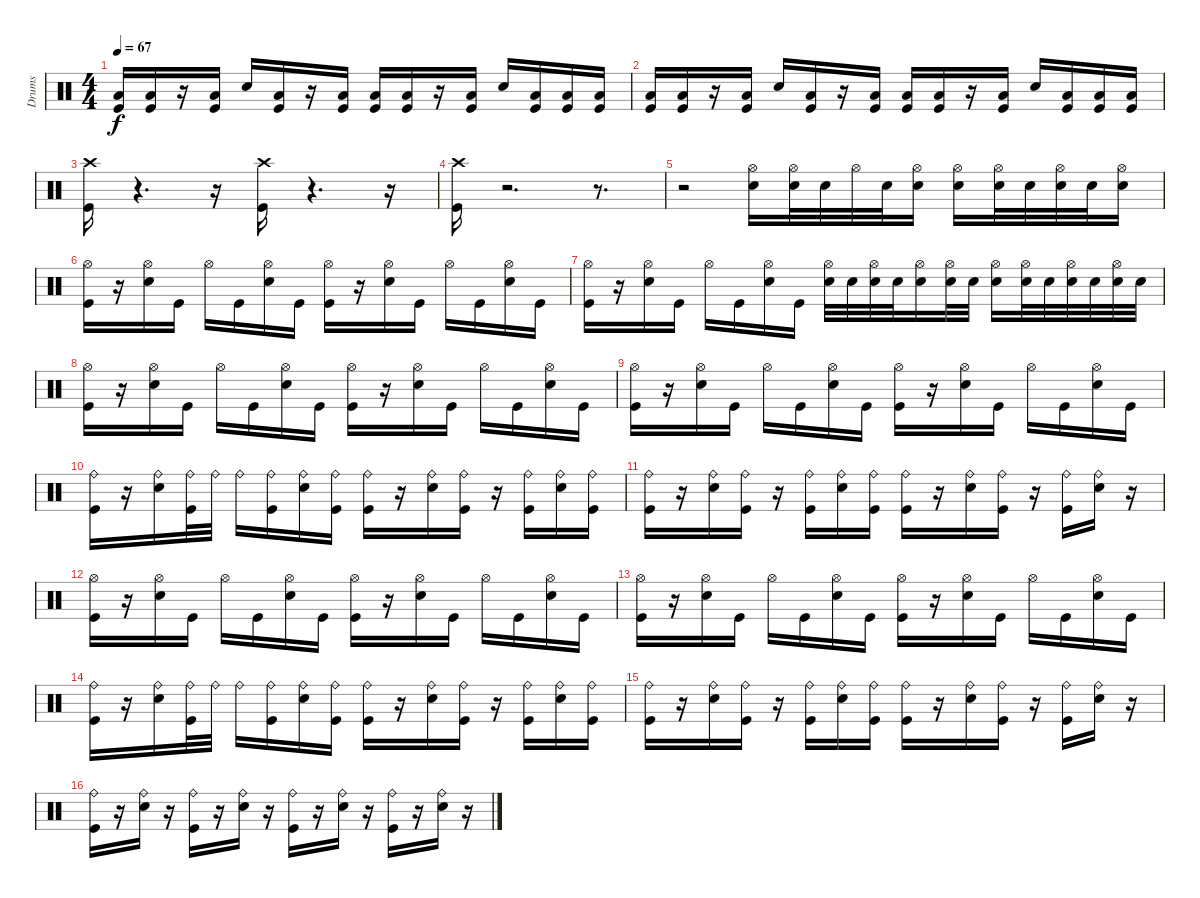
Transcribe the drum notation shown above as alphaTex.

\track ("Drums" "Drums") {instrument percussion}
\staff {score}
\articulation defaults
\ts (4 4)
\tempo 67
\clef neutral
\ks c
("Low Tom (hit)" "Kick (hit)").16{dy f} ("Low Tom (hit)" "Kick (hit)").16 r.16 ("Low Tom (hit)" "Kick (hit)").16 "Metronome (bell)".16 ("Kick (hit)" "Low Tom (hit)").16 r.16 ("Low Tom (hit)" "Kick (hit)").16 ("Low Tom (hit)" "Kick (hit)").16 ("Kick (hit)" "Low Tom (hit)").16 r.16 ("Low Tom (hit)" "Kick (hit)").16 "Metronome (bell)".16 ("Kick (hit)" "Low Tom (hit)").16 ("Kick (hit)" "Low Tom (hit)").16 ("Kick (hit)" "Low Tom (hit)").16 |
("Kick (hit)" "Low Tom (hit)").16 ("Kick (hit)" "Low Tom (hit)").16 r.16 ("Kick (hit)" "Low Tom (hit)").16 "Metronome (bell)".16 ("Low Tom (hit)" "Kick (hit)").16 r.16 ("Kick (hit)" "Low Tom (hit)").16 ("Kick (hit)" "Low Tom (hit)").16 ("Low Tom (hit)" "Kick (hit)").16 r.16 ("Kick (hit)" "Low Tom (hit)").16 "Metronome (bell)".16 ("Low Tom (hit)" "Kick (hit)").16 ("Low Tom (hit)" "Kick (hit)").16 ("Kick (hit)" "Low Tom (hit)").16 |
("Kick (hit)" "Crash high (hit)").16 r.4{d} r.16 ("Kick (hit)" "Crash high (hit)").16 r.4{d} r.16 |
("Kick (hit)" "Crash high (hit)").16 r.2{d} r.8{d} |
r.2 ("Hi-Hat (open)" "Metronome (bell)").16 ("Hi-Hat (open)" "Metronome (bell)").32 "Metronome (bell)".32 "Hi-Hat (open)".32 "Metronome (bell)".32 ("Hi-Hat (open)" "Metronome (bell)").16 ("Hi-Hat (open)" "Metronome (bell)").16 ("Hi-Hat (open)" "Metronome (bell)").32 "Metronome (bell)".32 ("Hi-Hat (open)" "Metronome (bell)").32 "Metronome (bell)".32 ("Hi-Hat (open)" "Metronome (bell)").16 |
("Hi-Hat (open)" "Kick (hit)").16 r.16 ("Hi-Hat (open)" "Electric Snare (hit)").16 "Kick (hit)".16 "Hi-Hat (open)".16 "Kick (hit)".16 ("Hi-Hat (open)" "Electric Snare (hit)").16 "Kick (hit)".16 ("Kick (hit)" "Hi-Hat (open)").16 r.16 ("Hi-Hat (open)" "Electric Snare (hit)").16 "Kick (hit)".16 "Hi-Hat (open)".16 "Kick (hit)".16 ("Electric Snare (hit)" "Hi-Hat (open)").16 "Kick (hit)".16 |
("Hi-Hat (open)" "Kick (hit)").16 r.16 ("Electric Snare (hit)" "Hi-Hat (open)").16 "Kick (hit)".16 "Hi-Hat (open)".16 "Kick (hit)".16 ("Electric Snare (hit)" "Hi-Hat (open)").16 "Kick (hit)".16 ("Hi-Hat (open)" "Snare (hit) 2").32 "Snare (hit) 2".32 ("Snare (hit) 2" "Hi-Hat (open)").32 "Snare (hit) 2".32 ("Hi-Hat (open)" "Snare (hit) 2").16 ("Snare (hit) 2" "Hi-Hat (open)").32 "Snare (hit) 2".32 ("Snare (hit) 2" "Hi-Hat (open)").16 ("Hi-Hat (open)" "Snare (hit) 2").32 "Snare (hit) 2".32 ("Hi-Hat (open)" "Snare (hit) 2").32 "Snare (hit) 2".32 ("Hi-Hat (open)" "Snare (hit) 2").32 "Snare (hit) 2".32 |
("Hi-Hat (open)" "Kick (hit)").16 r.16 ("Electric Snare (hit)" "Hi-Hat (open)").16 "Kick (hit)".16 "Hi-Hat (open)".16 "Kick (hit)".16 ("Hi-Hat (open)" "Electric Snare (hit)").16 "Kick (hit)".16 ("Kick (hit)" "Hi-Hat (open)").16 r.16 ("Hi-Hat (open)" "Electric Snare (hit)").16 "Kick (hit)".16 "Hi-Hat (open)".16 "Kick (hit)".16 ("Electric Snare (hit)" "Hi-Hat (open)").16 "Kick (hit)".16 |
("Kick (hit)" "Hi-Hat (open)").16 r.16 ("Hi-Hat (open)" "Electric Snare (hit)").16 "Kick (hit)".16 "Hi-Hat (open)".16 "Kick (hit)".16 ("Electric Snare (hit)" "Hi-Hat (open)").16 "Kick (hit)".16 ("Kick (hit)" "Hi-Hat (open)").16 r.16 ("Hi-Hat (open)" "Electric Snare (hit)").16 "Kick (hit)".16 "Hi-Hat (open)".16 "Kick (hit)".16 ("Electric Snare (hit)" "Hi-Hat (open)").16 "Kick (hit)".16 |
("Kick (hit)" "Ride (bell)").16 r.16 ("Electric Snare (hit)" "Ride (bell)").16 ("Kick (hit)" "Ride (bell)").32 "Ride (bell)".32 "Ride (bell)".16 ("Ride (bell)" "Kick (hit)").16 ("Ride (bell)" "Electric Snare (hit)").16 ("Ride (bell)" "Kick (hit)").16 ("Ride (bell)" "Kick (hit)").16 r.16 ("Ride (bell)" "Electric Snare (hit)").16 ("Ride (bell)" "Kick (hit)").16 r.16 ("Kick (hit)" "Ride (bell)").16 ("Ride (bell)" "Electric Snare (hit)").16 ("Kick (hit)" "Ride (bell)").16 |
("Ride (bell)" "Kick (hit)").16 r.16 ("Electric Snare (hit)" "Ride (bell)").16 ("Kick (hit)" "Ride (bell)").16 r.16 ("Ride (bell)" "Kick (hit)").16 ("Electric Snare (hit)" "Ride (bell)").16 ("Ride (bell)" "Kick (hit)").16 ("Ride (bell)" "Kick (hit)").16 r.16 ("Ride (bell)" "Electric Snare (hit)").16 ("Ride (bell)" "Kick (hit)").16 r.16 ("Kick (hit)" "Ride (bell)").16 ("Electric Snare (hit)" "Ride (bell)").16 r.16 |
("Kick (hit)" "Hi-Hat (open)").16 r.16 ("Electric Snare (hit)" "Hi-Hat (open)").16 "Kick (hit)".16 "Hi-Hat (open)".16 "Kick (hit)".16 ("Hi-Hat (open)" "Electric Snare (hit)").16 "Kick (hit)".16 ("Hi-Hat (open)" "Kick (hit)").16 r.16 ("Hi-Hat (open)" "Electric Snare (hit)").16 "Kick (hit)".16 "Hi-Hat (open)".16 "Kick (hit)".16 ("Electric Snare (hit)" "Hi-Hat (open)").16 "Kick (hit)".16 |
("Hi-Hat (open)" "Kick (hit)").16 r.16 ("Hi-Hat (open)" "Electric Snare (hit)").16 "Kick (hit)".16 "Hi-Hat (open)".16 "Kick (hit)".16 ("Electric Snare (hit)" "Hi-Hat (open)").16 "Kick (hit)".16 ("Hi-Hat (open)" "Kick (hit)").16 r.16 ("Hi-Hat (open)" "Electric Snare (hit)").16 "Kick (hit)".16 "Hi-Hat (open)".16 "Kick (hit)".16 ("Electric Snare (hit)" "Hi-Hat (open)").16 "Kick (hit)".16 |
("Kick (hit)" "Ride (bell)").16 r.16 ("Electric Snare (hit)" "Ride (bell)").16 ("Ride (bell)" "Kick (hit)").32 "Ride (bell)".32 "Ride (bell)".16 ("Ride (bell)" "Kick (hit)").16 ("Ride (bell)" "Electric Snare (hit)").16 ("Kick (hit)" "Ride (bell)").16 ("Kick (hit)" "Ride (bell)").16 r.16 ("Electric Snare (hit)" "Ride (bell)").16 ("Kick (hit)" "Ride (bell)").16 r.16 ("Ride (bell)" "Kick (hit)").16 ("Electric Snare (hit)" "Ride (bell)").16 ("Kick (hit)" "Ride (bell)").16 |
("Kick (hit)" "Ride (bell)").16 r.16 ("Ride (bell)" "Electric Snare (hit)").16 ("Ride (bell)" "Kick (hit)").16 r.16 ("Kick (hit)" "Ride (bell)").16 ("Ride (bell)" "Electric Snare (hit)").16 ("Ride (bell)" "Kick (hit)").16 ("Ride (bell)" "Kick (hit)").16 r.16 ("Ride (bell)" "Electric Snare (hit)").16 ("Kick (hit)" "Ride (bell)").16 r.16 ("Ride (bell)" "Kick (hit)").16 ("Ride (bell)" "Electric Snare (hit)").16 r.16 |
("Ride (bell)" "Kick (hit)").16 r.16 ("Electric Snare (hit)" "Ride (bell)").16 r.16 ("Kick (hit)" "Ride (bell)").16 r.16 ("Electric Snare (hit)" "Ride (bell)").16 r.16 ("Ride (bell)" "Kick (hit)").16 r.16 ("Electric Snare (hit)" "Ride (bell)").16 r.16 ("Kick (hit)" "Ride (bell)").16 r.16 ("Electric Snare (hit)" "Ride (bell)").16 r.16
